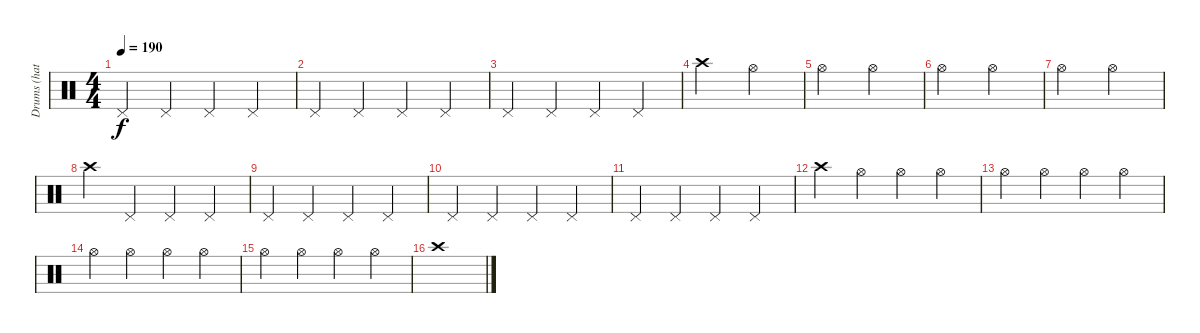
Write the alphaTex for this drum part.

\track ("Drums (hats)" "Drums (hat") {instrument percussion}
\staff {score}
\articulation defaults
\ts (4 4)
\tempo 190
\clef neutral
\ks c "Pedal Hi-Hat (hit)".4{dy f} "Pedal Hi-Hat (hit)".4 "Pedal Hi-Hat (hit)".4 "Pedal Hi-Hat (hit)".4
|
"Pedal Hi-Hat (hit)".4 "Pedal Hi-Hat (hit)".4 "Pedal Hi-Hat (hit)".4 "Pedal Hi-Hat (hit)".4 |
"Pedal Hi-Hat (hit)".4 "Pedal Hi-Hat (hit)".4 "Pedal Hi-Hat (hit)".4 "Pedal Hi-Hat (hit)".4 |
"Crash high (hit)".2 "Hi-Hat (open)".2 |
"Hi-Hat (open)".2 "Hi-Hat (open)".2 |
"Hi-Hat (open)".2 "Hi-Hat (open)".2 |
"Hi-Hat (open)".2 "Hi-Hat (open)".2 |
"Crash high (hit)".4 "Pedal Hi-Hat (hit)".4 "Pedal Hi-Hat (hit)".4 "Pedal Hi-Hat (hit)".4 |
"Pedal Hi-Hat (hit)".4 "Pedal Hi-Hat (hit)".4 "Pedal Hi-Hat (hit)".4 "Pedal Hi-Hat (hit)".4 |
"Pedal Hi-Hat (hit)".4 "Pedal Hi-Hat (hit)".4 "Pedal Hi-Hat (hit)".4 "Pedal Hi-Hat (hit)".4 |
"Pedal Hi-Hat (hit)".4 "Pedal Hi-Hat (hit)".4 "Pedal Hi-Hat (hit)".4 "Pedal Hi-Hat (hit)".4 |
"Crash high (hit)".4 "Hi-Hat (open)".4 "Hi-Hat (open)".4 "Hi-Hat (open)".4 |
"Hi-Hat (open)".4 "Hi-Hat (open)".4 "Hi-Hat (open)".4 "Hi-Hat (open)".4 |
"Hi-Hat (open)".4 "Hi-Hat (open)".4 "Hi-Hat (open)".4 "Hi-Hat (open)".4 |
"Hi-Hat (open)".4 "Hi-Hat (open)".4 "Hi-Hat (open)".4 "Hi-Hat (open)".4 |
"Crash high (hit)".1
